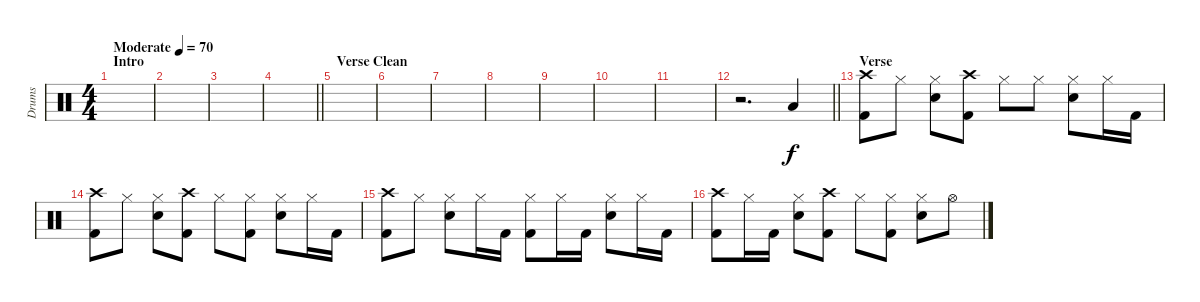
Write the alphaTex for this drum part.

\track ("Drums" "Drums") {instrument percussion}
\staff {score}
\articulation defaults
\ts (4 4)
\section ("" "Intro")
\tempo (70 "Moderate")
\clef neutral
\ks c
|
|
|
\barLineRight lightlight
|
\section ("" "Verse Clean")
|
|
|
|
|
|
|
\barLineRight lightlight
r.2{d} "Low Tom (hit)".4 |
\section ("" "Verse ")
("Crash high (hit)" "Kick (hit) 2").8 "Hi-Hat (closed)".8 ("Hi-Hat (closed)" "Snare (hit) 2").8 ("Crash high (hit)" "Kick (hit) 2").8 "Hi-Hat (closed)".8 "Hi-Hat (closed)".8 ("Hi-Hat (closed)" "Snare (hit) 2").8 "Hi-Hat (closed)".16 "Kick (hit) 2".16 |
("Crash high (hit)" "Kick (hit) 2").8 "Hi-Hat (closed)".8 ("Hi-Hat (closed)" "Snare (hit) 2").8 ("Crash high (hit)" "Kick (hit) 2").8 "Hi-Hat (closed)".8 ("Hi-Hat (closed)" "Kick (hit) 2").8 ("Hi-Hat (closed)" "Snare (hit) 2").8 "Hi-Hat (closed)".16 "Kick (hit) 2".16 |
("Crash high (hit)" "Kick (hit) 2").8 "Hi-Hat (closed)".8 ("Hi-Hat (closed)" "Snare (hit) 2").8 "Hi-Hat (closed)".16 "Kick (hit) 2".16 ("Hi-Hat (closed)" "Kick (hit) 2").8 "Hi-Hat (closed)".16 "Kick (hit) 2".16 ("Hi-Hat (closed)" "Snare (hit) 2").8 "Hi-Hat (closed)".16 "Kick (hit) 2".16 |
("Crash high (hit)" "Kick (hit) 2").8 "Hi-Hat (closed)".16 "Kick (hit) 2".16 ("Hi-Hat (closed)" "Snare (hit) 2").8 ("Crash high (hit)" "Kick (hit) 2").8 "Hi-Hat (closed)".8 ("Hi-Hat (closed)" "Kick (hit) 2").8 ("Hi-Hat (closed)" "Snare (hit) 2").8 "Hi-Hat (open)".8
